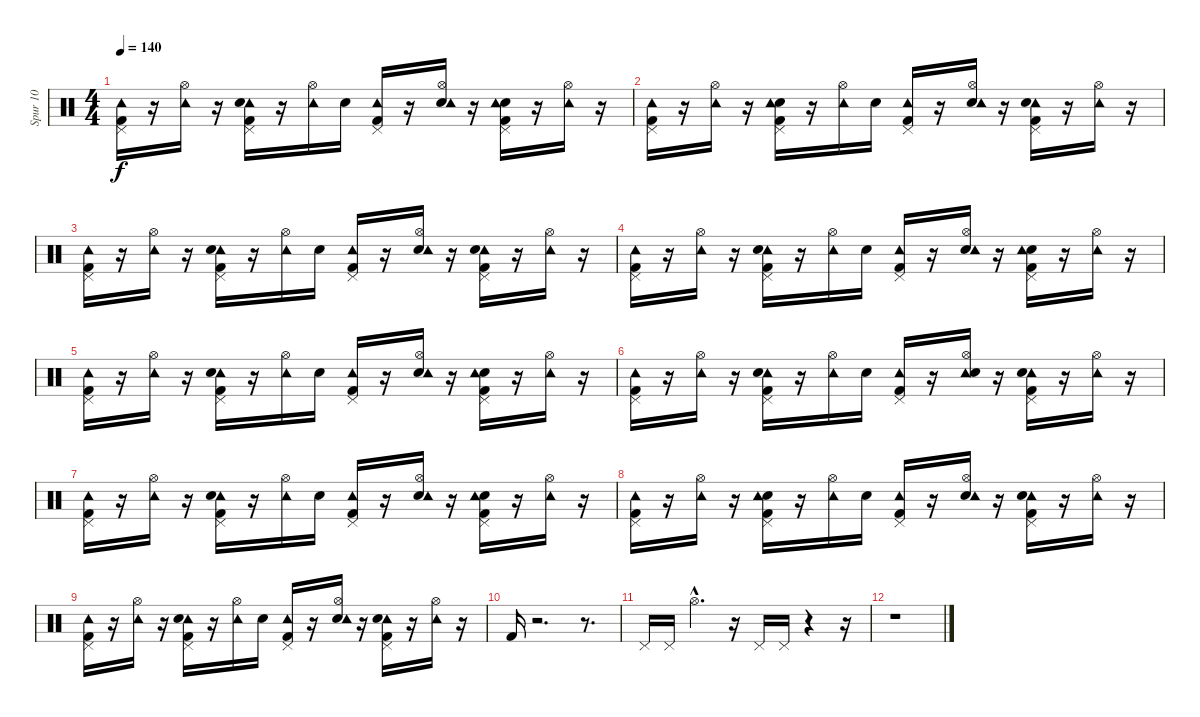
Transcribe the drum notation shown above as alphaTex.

\track ("Spur 10" "Spur 10") {instrument percussion}
\staff {score}
\articulation defaults
\ts (4 4)
\tempo 140
\clef neutral
\ks c
("Tambourine (hit)" "Kick (hit) 2" "Pedal Hi-Hat (hit)").16{dy f} r.16 ("Tambourine (hit)" "Hi-Hat (open)").16 r.16 ("Tambourine (hit)" "Pedal Hi-Hat (hit)" "Kick (hit) 2" "Snare (hit) 2").16 r.16 ("Tambourine (hit)" "Hi-Hat (open)").16 "Snare (hit) 2".16 ("Pedal Hi-Hat (hit)" "Tambourine (hit)" "Kick (hit) 2").16 r.16 ("Hi-Hat (open)" "Snare (hit) 2" "Tambourine (hit)").16 r.16 ("Snare (hit) 2" "Kick (hit) 2" "Pedal Hi-Hat (hit)" "Tambourine (hit)").16 r.16 ("Hi-Hat (open)" "Tambourine (hit)").16 r.16 |
("Kick (hit) 2" "Tambourine (hit)" "Pedal Hi-Hat (hit)").16 r.16 ("Hi-Hat (open)" "Tambourine (hit)").16 r.16 ("Pedal Hi-Hat (hit)" "Snare (hit) 2" "Tambourine (hit)" "Kick (hit) 2").16 r.16 ("Hi-Hat (open)" "Tambourine (hit)").16 "Snare (hit) 2".16 ("Tambourine (hit)" "Kick (hit) 2" "Pedal Hi-Hat (hit)").16 r.16 ("Snare (hit) 2" "Tambourine (hit)" "Hi-Hat (open)").16 r.16 ("Kick (hit) 2" "Tambourine (hit)" "Snare (hit) 2" "Pedal Hi-Hat (hit)").16 r.16 ("Hi-Hat (open)" "Tambourine (hit)").16 r.16 |
("Tambourine (hit)" "Pedal Hi-Hat (hit)" "Kick (hit) 2").16 r.16 ("Tambourine (hit)" "Hi-Hat (open)").16 r.16 ("Tambourine (hit)" "Pedal Hi-Hat (hit)" "Snare (hit) 2" "Kick (hit) 2").16 r.16 ("Tambourine (hit)" "Hi-Hat (open)").16 "Snare (hit) 2".16 ("Pedal Hi-Hat (hit)" "Tambourine (hit)" "Kick (hit) 2").16 r.16 ("Snare (hit) 2" "Tambourine (hit)" "Hi-Hat (open)").16 r.16 ("Tambourine (hit)" "Snare (hit) 2" "Pedal Hi-Hat (hit)" "Kick (hit) 2").16 r.16 ("Tambourine (hit)" "Hi-Hat (open)").16 r.16 |
("Tambourine (hit)" "Kick (hit) 2" "Pedal Hi-Hat (hit)").16 r.16 ("Hi-Hat (open)" "Tambourine (hit)").16 r.16 ("Pedal Hi-Hat (hit)" "Kick (hit) 2" "Tambourine (hit)" "Snare (hit) 2").16 r.16 ("Tambourine (hit)" "Hi-Hat (open)").16 "Snare (hit) 2".16 ("Tambourine (hit)" "Pedal Hi-Hat (hit)" "Kick (hit) 2").16 r.16 ("Snare (hit) 2" "Tambourine (hit)" "Hi-Hat (open)").16 r.16 ("Snare (hit) 2" "Kick (hit) 2" "Pedal Hi-Hat (hit)" "Tambourine (hit)").16 r.16 ("Tambourine (hit)" "Hi-Hat (open)").16 r.16 |
("Pedal Hi-Hat (hit)" "Tambourine (hit)" "Kick (hit) 2").16 r.16 ("Tambourine (hit)" "Hi-Hat (open)").16 r.16 ("Pedal Hi-Hat (hit)" "Kick (hit) 2" "Tambourine (hit)" "Snare (hit) 2").16 r.16 ("Tambourine (hit)" "Hi-Hat (open)").16 "Snare (hit) 2".16 ("Kick (hit) 2" "Pedal Hi-Hat (hit)" "Tambourine (hit)").16 r.16 ("Snare (hit) 2" "Tambourine (hit)" "Hi-Hat (open)").16 r.16 ("Snare (hit) 2" "Pedal Hi-Hat (hit)" "Kick (hit) 2" "Tambourine (hit)").16 r.16 ("Tambourine (hit)" "Hi-Hat (open)").16 r.16 |
("Pedal Hi-Hat (hit)" "Kick (hit) 2" "Tambourine (hit)").16 r.16 ("Tambourine (hit)" "Hi-Hat (open)").16 r.16 ("Kick (hit) 2" "Tambourine (hit)" "Pedal Hi-Hat (hit)" "Snare (hit) 2").16 r.16 ("Tambourine (hit)" "Hi-Hat (open)").16 "Snare (hit) 2".16 ("Tambourine (hit)" "Pedal Hi-Hat (hit)" "Kick (hit) 2").16 r.16 ("Tambourine (hit)" "Snare (hit) 2" "Hi-Hat (open)").16 r.16 ("Pedal Hi-Hat (hit)" "Kick (hit) 2" "Tambourine (hit)" "Snare (hit) 2").16 r.16 ("Tambourine (hit)" "Hi-Hat (open)").16 r.16 |
("Pedal Hi-Hat (hit)" "Kick (hit) 2" "Tambourine (hit)").16 r.16 ("Tambourine (hit)" "Hi-Hat (open)").16 r.16 ("Kick (hit) 2" "Tambourine (hit)" "Pedal Hi-Hat (hit)" "Snare (hit) 2").16 r.16 ("Hi-Hat (open)" "Tambourine (hit)").16 "Snare (hit) 2".16 ("Tambourine (hit)" "Kick (hit) 2" "Pedal Hi-Hat (hit)").16 r.16 ("Hi-Hat (open)" "Snare (hit) 2" "Tambourine (hit)").16 r.16 ("Snare (hit) 2" "Tambourine (hit)" "Kick (hit) 2" "Pedal Hi-Hat (hit)").16 r.16 ("Hi-Hat (open)" "Tambourine (hit)").16 r.16 |
("Tambourine (hit)" "Pedal Hi-Hat (hit)" "Kick (hit) 2").16 r.16 ("Tambourine (hit)" "Hi-Hat (open)").16 r.16 ("Snare (hit) 2" "Tambourine (hit)" "Kick (hit) 2" "Pedal Hi-Hat (hit)").16 r.16 ("Hi-Hat (open)" "Tambourine (hit)").16 "Snare (hit) 2".16 ("Pedal Hi-Hat (hit)" "Kick (hit) 2" "Tambourine (hit)").16 r.16 ("Snare (hit) 2" "Hi-Hat (open)" "Tambourine (hit)").16 r.16 ("Kick (hit) 2" "Pedal Hi-Hat (hit)" "Tambourine (hit)" "Snare (hit) 2").16 r.16 ("Tambourine (hit)" "Hi-Hat (open)").16 r.16 |
("Tambourine (hit)" "Pedal Hi-Hat (hit)" "Kick (hit) 2").16 r.16 ("Hi-Hat (open)" "Tambourine (hit)").16 r.16 ("Kick (hit) 2" "Tambourine (hit)" "Snare (hit) 2" "Pedal Hi-Hat (hit)").16 r.16 ("Tambourine (hit)" "Hi-Hat (open)").16 "Snare (hit) 2".16 ("Kick (hit) 2" "Pedal Hi-Hat (hit)" "Tambourine (hit)").16 r.16 ("Hi-Hat (open)" "Snare (hit) 2" "Tambourine (hit)").16 r.16 ("Pedal Hi-Hat (hit)" "Tambourine (hit)" "Snare (hit) 2" "Kick (hit) 2").16 r.16 ("Tambourine (hit)" "Hi-Hat (open)").16 r.16 |
"Kick (hit) 2".16 r.2{d} r.8{d} |
"Pedal Hi-Hat (hit)".16 "Pedal Hi-Hat (hit)".16 "Hi-Hat (open)"{hac}.4{d} r.16 "Pedal Hi-Hat (hit)".16 "Pedal Hi-Hat (hit)".16 r.4 r.16 |
r.1
